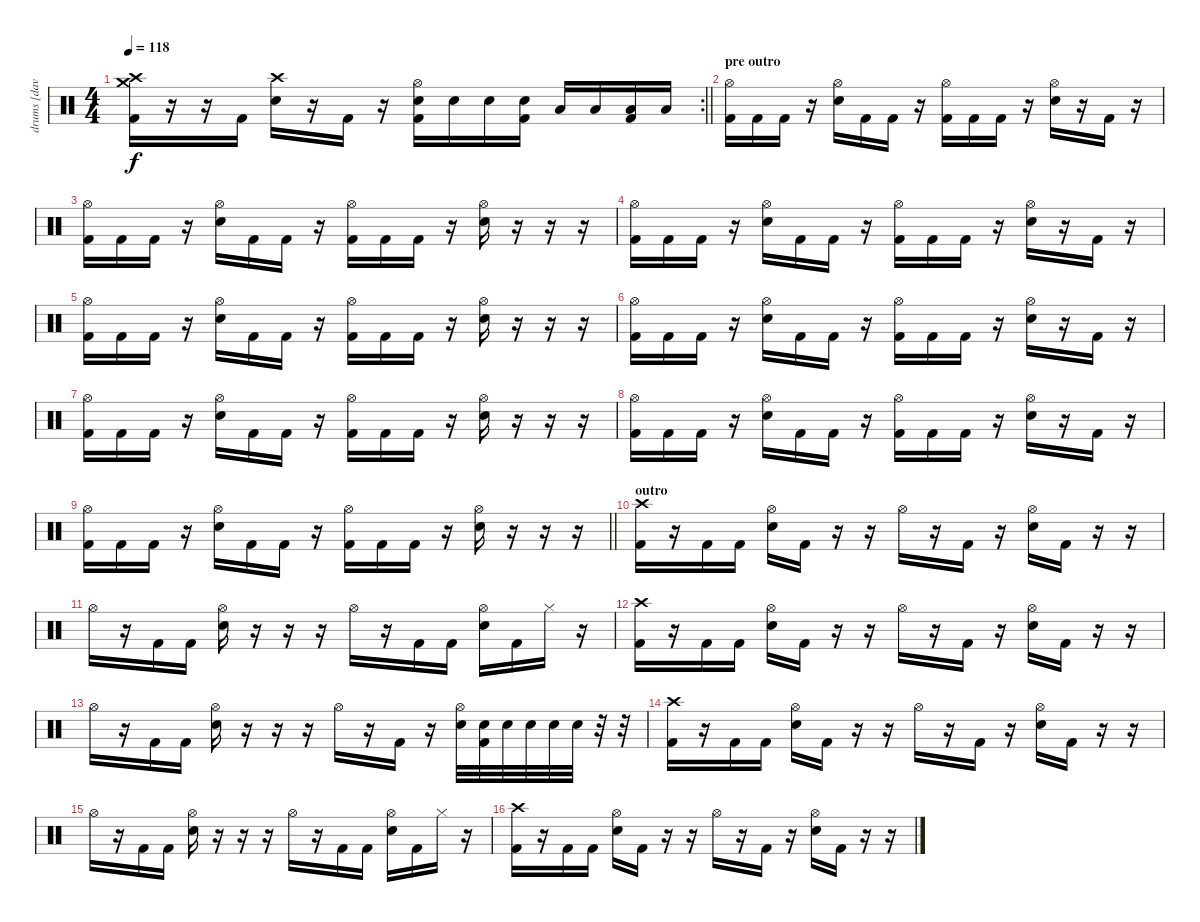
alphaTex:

\track ("drums [david]" "drums [dav") {instrument percussion}
\staff {score}
\articulation defaults
\rc 2
\ts (4 4)
\tempo 118
\clef neutral
\barLineRight lightlight
\ks c
("Crash high (hit)" "Crash medium (hit)" "Kick (hit) 2").16{dy f} r.16 r.16 "Kick (hit) 2".16 ("Crash high (hit)" "Electric Snare (hit)").16 r.16 "Kick (hit) 2".16 r.16 ("Hi-Hat (open)" "Electric Snare (hit)" "Kick (hit) 2").16 "Electric Snare (hit)".16 "Electric Snare (hit)".16 ("Electric Snare (hit)" "Kick (hit) 2").16 "Low Tom (hit)".16 "Low Tom (hit)".16 ("Low Tom (hit)" "Kick (hit) 2").16 "Low Tom (hit)".16 |
\section ("" "pre outro")
("Hi-Hat (open)" "Kick (hit) 2").16 "Kick (hit) 2".16 "Kick (hit) 2".16 r.16 ("Hi-Hat (open)" "Electric Snare (hit)").16 "Kick (hit) 2".16 "Kick (hit) 2".16 r.16 ("Hi-Hat (open)" "Kick (hit) 2").16 "Kick (hit) 2".16 "Kick (hit) 2".16 r.16 ("Hi-Hat (open)" "Electric Snare (hit)").16 r.16 "Kick (hit) 2".16 r.16 |
("Hi-Hat (open)" "Kick (hit) 2").16 "Kick (hit) 2".16 "Kick (hit) 2".16 r.16 ("Hi-Hat (open)" "Electric Snare (hit)").16 "Kick (hit) 2".16 "Kick (hit) 2".16 r.16 ("Hi-Hat (open)" "Kick (hit) 2").16 "Kick (hit) 2".16 "Kick (hit) 2".16 r.16 ("Hi-Hat (open)" "Electric Snare (hit)").16 r.16 r.16 r.16 |
("Hi-Hat (open)" "Kick (hit) 2").16 "Kick (hit) 2".16 "Kick (hit) 2".16 r.16 ("Hi-Hat (open)" "Electric Snare (hit)").16 "Kick (hit) 2".16 "Kick (hit) 2".16 r.16 ("Hi-Hat (open)" "Kick (hit) 2").16 "Kick (hit) 2".16 "Kick (hit) 2".16 r.16 ("Hi-Hat (open)" "Electric Snare (hit)").16 r.16 "Kick (hit) 2".16 r.16 |
("Hi-Hat (open)" "Kick (hit) 2").16 "Kick (hit) 2".16 "Kick (hit) 2".16 r.16 ("Hi-Hat (open)" "Electric Snare (hit)").16 "Kick (hit) 2".16 "Kick (hit) 2".16 r.16 ("Hi-Hat (open)" "Kick (hit) 2").16 "Kick (hit) 2".16 "Kick (hit) 2".16 r.16 ("Hi-Hat (open)" "Electric Snare (hit)").16 r.16 r.16 r.16 |
("Hi-Hat (open)" "Kick (hit) 2").16 "Kick (hit) 2".16 "Kick (hit) 2".16 r.16 ("Hi-Hat (open)" "Electric Snare (hit)").16 "Kick (hit) 2".16 "Kick (hit) 2".16 r.16 ("Hi-Hat (open)" "Kick (hit) 2").16 "Kick (hit) 2".16 "Kick (hit) 2".16 r.16 ("Hi-Hat (open)" "Electric Snare (hit)").16 r.16 "Kick (hit) 2".16 r.16 |
("Hi-Hat (open)" "Kick (hit) 2").16 "Kick (hit) 2".16 "Kick (hit) 2".16 r.16 ("Hi-Hat (open)" "Electric Snare (hit)").16 "Kick (hit) 2".16 "Kick (hit) 2".16 r.16 ("Hi-Hat (open)" "Kick (hit) 2").16 "Kick (hit) 2".16 "Kick (hit) 2".16 r.16 ("Hi-Hat (open)" "Electric Snare (hit)").16 r.16 r.16 r.16 |
("Hi-Hat (open)" "Kick (hit) 2").16 "Kick (hit) 2".16 "Kick (hit) 2".16 r.16 ("Hi-Hat (open)" "Electric Snare (hit)").16 "Kick (hit) 2".16 "Kick (hit) 2".16 r.16 ("Hi-Hat (open)" "Kick (hit) 2").16 "Kick (hit) 2".16 "Kick (hit) 2".16 r.16 ("Hi-Hat (open)" "Electric Snare (hit)").16 r.16 "Kick (hit) 2".16 r.16 |
\barLineRight lightlight
("Hi-Hat (open)" "Kick (hit) 2").16 "Kick (hit) 2".16 "Kick (hit) 2".16 r.16 ("Hi-Hat (open)" "Electric Snare (hit)").16 "Kick (hit) 2".16 "Kick (hit) 2".16 r.16 ("Hi-Hat (open)" "Kick (hit) 2").16 "Kick (hit) 2".16 "Kick (hit) 2".16 r.16 ("Hi-Hat (open)" "Electric Snare (hit)").16 r.16 r.16 r.16 |
\section ("" "outro")
("Crash high (hit)" "Kick (hit) 2").16 r.16 "Kick (hit) 2".16 "Kick (hit) 2".16 ("Hi-Hat (open)" "Electric Snare (hit)").16 "Kick (hit) 2".16 r.16 r.16 "Hi-Hat (open)".16 r.16 "Kick (hit) 2".16 r.16 ("Hi-Hat (open)" "Electric Snare (hit)").16 "Kick (hit) 2".16 r.16 r.16 |
"Hi-Hat (open)".16 r.16 "Kick (hit) 2".16 "Kick (hit) 2".16 ("Hi-Hat (open)" "Electric Snare (hit)").16 r.16 r.16 r.16 "Hi-Hat (open)".16 r.16 "Kick (hit) 2".16 "Kick (hit) 2".16 ("Hi-Hat (open)" "Electric Snare (hit)").16 "Kick (hit) 2".16 "Hi-Hat (closed)".16 r.16 |
("Crash high (hit)" "Kick (hit) 2").16 r.16 "Kick (hit) 2".16 "Kick (hit) 2".16 ("Hi-Hat (open)" "Electric Snare (hit)").16 "Kick (hit) 2".16 r.16 r.16 "Hi-Hat (open)".16 r.16 "Kick (hit) 2".16 r.16 ("Hi-Hat (open)" "Electric Snare (hit)").16 "Kick (hit) 2".16 r.16 r.16 |
"Hi-Hat (open)".16 r.16 "Kick (hit) 2".16 "Kick (hit) 2".16 ("Hi-Hat (open)" "Electric Snare (hit)").16 r.16 r.16 r.16 "Hi-Hat (open)".16 r.16 "Kick (hit) 2".16 r.16 ("Hi-Hat (open)" "Electric Snare (hit)").32 ("Electric Snare (hit)" "Kick (hit) 2").32 "Electric Snare (hit)".32 "Electric Snare (hit)".32 "Electric Snare (hit)".32 "Electric Snare (hit)".32 r.32 r.32 |
("Crash high (hit)" "Kick (hit) 2").16 r.16 "Kick (hit) 2".16 "Kick (hit) 2".16 ("Hi-Hat (open)" "Electric Snare (hit)").16 "Kick (hit) 2".16 r.16 r.16 "Hi-Hat (open)".16 r.16 "Kick (hit) 2".16 r.16 ("Hi-Hat (open)" "Electric Snare (hit)").16 "Kick (hit) 2".16 r.16 r.16 |
"Hi-Hat (open)".16 r.16 "Kick (hit) 2".16 "Kick (hit) 2".16 ("Hi-Hat (open)" "Electric Snare (hit)").16 r.16 r.16 r.16 "Hi-Hat (open)".16 r.16 "Kick (hit) 2".16 "Kick (hit) 2".16 ("Hi-Hat (open)" "Electric Snare (hit)").16 "Kick (hit) 2".16 "Hi-Hat (closed)".16 r.16 |
("Crash high (hit)" "Kick (hit) 2").16 r.16 "Kick (hit) 2".16 "Kick (hit) 2".16 ("Hi-Hat (open)" "Electric Snare (hit)").16 "Kick (hit) 2".16 r.16 r.16 "Hi-Hat (open)".16 r.16 "Kick (hit) 2".16 r.16 ("Hi-Hat (open)" "Electric Snare (hit)").16 "Kick (hit) 2".16 r.16 r.16
